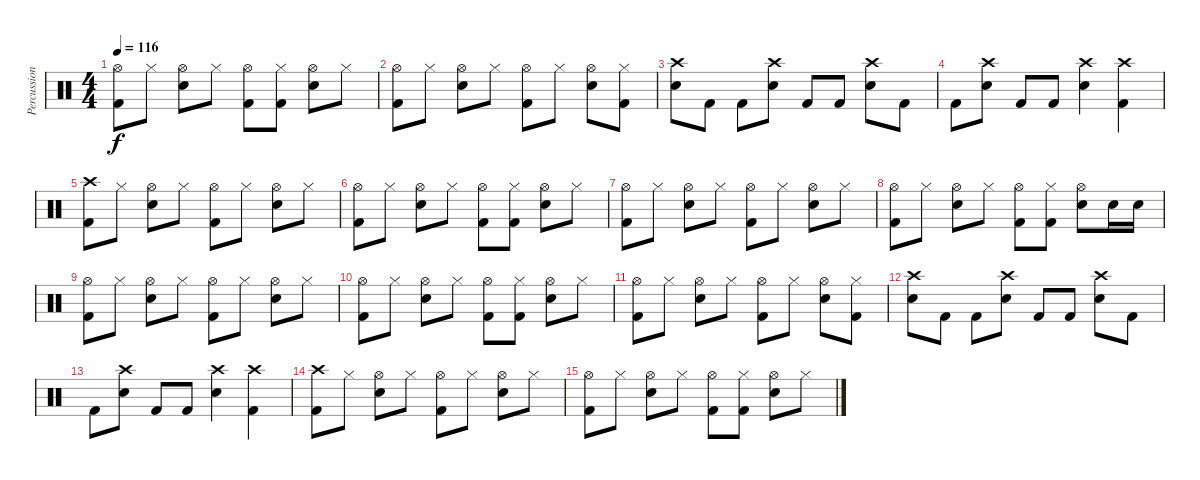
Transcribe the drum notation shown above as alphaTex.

\track ("Percussion" "Percussion") {instrument percussion}
\staff {score}
\articulation defaults
\ts (4 4)
\tempo 116
\clef neutral
\ks c
("Hi-Hat (open)" "Kick (hit) 2").8{dy f} "Hi-Hat (closed)".8 ("Hi-Hat (open)" "Snare (hit) 2").8 "Hi-Hat (closed)".8 ("Hi-Hat (open)" "Kick (hit) 2").8 ("Hi-Hat (closed)" "Kick (hit) 2").8 ("Hi-Hat (open)" "Snare (hit) 2").8 "Hi-Hat (closed)".8 |
("Hi-Hat (open)" "Kick (hit) 2").8 "Hi-Hat (closed)".8 ("Hi-Hat (open)" "Snare (hit) 2").8 "Hi-Hat (closed)".8 ("Hi-Hat (open)" "Kick (hit) 2").8 "Hi-Hat (closed)".8 ("Hi-Hat (open)" "Snare (hit) 2").8 ("Hi-Hat (closed)" "Kick (hit) 2").8 |
("Crash high (hit)" "Snare (hit) 2").8 "Kick (hit) 2".8 "Kick (hit) 2".8 ("Crash high (hit)" "Snare (hit) 2").8 "Kick (hit) 2".8 "Kick (hit) 2".8 ("Crash high (hit)" "Snare (hit) 2").8 "Kick (hit) 2".8 |
"Kick (hit) 2".8 ("Crash high (hit)" "Snare (hit) 2").8 "Kick (hit) 2".8 "Kick (hit) 2".8 ("Crash high (hit)" "Snare (hit) 2").4 ("Crash high (hit)" "Kick (hit) 2").4 |
("Crash high (hit)" "Kick (hit) 2").8 "Hi-Hat (closed)".8 ("Hi-Hat (open)" "Snare (hit) 2").8 "Hi-Hat (closed)".8 ("Hi-Hat (open)" "Kick (hit) 2").8 "Hi-Hat (closed)".8 ("Hi-Hat (open)" "Snare (hit) 2").8 "Hi-Hat (closed)".8 |
("Hi-Hat (open)" "Kick (hit) 2").8 "Hi-Hat (closed)".8 ("Hi-Hat (open)" "Snare (hit) 2").8 "Hi-Hat (closed)".8 ("Hi-Hat (open)" "Kick (hit) 2").8 ("Hi-Hat (closed)" "Kick (hit) 2").8 ("Hi-Hat (open)" "Snare (hit) 2").8 "Hi-Hat (closed)".8 |
("Hi-Hat (open)" "Kick (hit) 2").8 "Hi-Hat (closed)".8 ("Hi-Hat (open)" "Snare (hit) 2").8 "Hi-Hat (closed)".8 ("Hi-Hat (open)" "Kick (hit) 2").8 "Hi-Hat (closed)".8 ("Hi-Hat (open)" "Snare (hit) 2").8 "Hi-Hat (closed)".8 |
("Hi-Hat (open)" "Kick (hit) 2").8 "Hi-Hat (closed)".8 ("Hi-Hat (open)" "Snare (hit) 2").8 "Hi-Hat (closed)".8 ("Hi-Hat (open)" "Kick (hit) 2").8 ("Hi-Hat (closed)" "Kick (hit) 2").8 ("Hi-Hat (open)" "Snare (hit) 2").8 "Snare (hit) 2".16 "Snare (hit) 2".16 |
("Hi-Hat (open)" "Kick (hit) 2").8 "Hi-Hat (closed)".8 ("Hi-Hat (open)" "Snare (hit) 2").8 "Hi-Hat (closed)".8 ("Hi-Hat (open)" "Kick (hit) 2").8 "Hi-Hat (closed)".8 ("Hi-Hat (open)" "Snare (hit) 2").8 "Hi-Hat (closed)".8 |
("Hi-Hat (open)" "Kick (hit) 2").8 "Hi-Hat (closed)".8 ("Hi-Hat (open)" "Snare (hit) 2").8 "Hi-Hat (closed)".8 ("Hi-Hat (open)" "Kick (hit) 2").8 ("Hi-Hat (closed)" "Kick (hit) 2").8 ("Hi-Hat (open)" "Snare (hit) 2").8 "Hi-Hat (closed)".8 |
("Hi-Hat (open)" "Kick (hit) 2").8 "Hi-Hat (closed)".8 ("Hi-Hat (open)" "Snare (hit) 2").8 "Hi-Hat (closed)".8 ("Hi-Hat (open)" "Kick (hit) 2").8 "Hi-Hat (closed)".8 ("Hi-Hat (open)" "Snare (hit) 2").8 ("Hi-Hat (closed)" "Kick (hit) 2").8 |
("Crash high (hit)" "Snare (hit) 2").8 "Kick (hit) 2".8 "Kick (hit) 2".8 ("Crash high (hit)" "Snare (hit) 2").8 "Kick (hit) 2".8 "Kick (hit) 2".8 ("Crash high (hit)" "Snare (hit) 2").8 "Kick (hit) 2".8 |
"Kick (hit) 2".8 ("Crash high (hit)" "Snare (hit) 2").8 "Kick (hit) 2".8 "Kick (hit) 2".8 ("Crash high (hit)" "Snare (hit) 2").4 ("Crash high (hit)" "Kick (hit) 2").4 |
("Crash high (hit)" "Kick (hit) 2").8 "Hi-Hat (closed)".8 ("Hi-Hat (open)" "Snare (hit) 2").8 "Hi-Hat (closed)".8 ("Hi-Hat (open)" "Kick (hit) 2").8 "Hi-Hat (closed)".8 ("Hi-Hat (open)" "Snare (hit) 2").8 "Hi-Hat (closed)".8 |
("Hi-Hat (open)" "Kick (hit) 2").8 "Hi-Hat (closed)".8 ("Hi-Hat (open)" "Snare (hit) 2").8 "Hi-Hat (closed)".8 ("Hi-Hat (open)" "Kick (hit) 2").8 ("Hi-Hat (closed)" "Kick (hit) 2").8 ("Hi-Hat (open)" "Snare (hit) 2").8 "Hi-Hat (closed)".8
